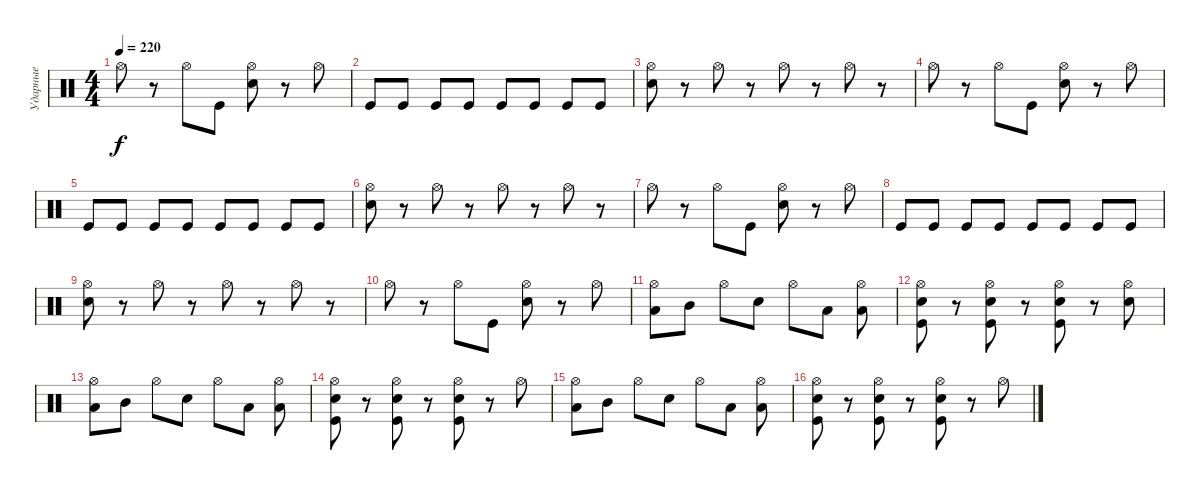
\track ("Ударные" "Ударные") {instrument percussion}
\staff {score}
\articulation defaults
\ts (4 4)
\tempo 220
\clef neutral
\ks c "Hi-Hat (open)".8{dy f}
r.8 "Hi-Hat (open)".8 "Kick (hit)".8 ("Hi-Hat (open)" "Electric Snare (hit)").8 r.8 "Hi-Hat (open)".8 |
"Kick (hit)".8 "Kick (hit)".8 "Kick (hit)".8 "Kick (hit)".8 "Kick (hit)".8 "Kick (hit)".8 "Kick (hit)".8 "Kick (hit)".8 |
("Hi-Hat (open)" "Electric Snare (hit)").8 r.8 "Hi-Hat (open)".8 r.8 "Hi-Hat (open)".8 r.8 "Hi-Hat (open)".8 r.8 |
"Hi-Hat (open)".8 r.8 "Hi-Hat (open)".8 "Kick (hit)".8 ("Hi-Hat (open)" "Electric Snare (hit)").8 r.8 "Hi-Hat (open)".8 |
"Kick (hit)".8 "Kick (hit)".8 "Kick (hit)".8 "Kick (hit)".8 "Kick (hit)".8 "Kick (hit)".8 "Kick (hit)".8 "Kick (hit)".8 |
("Hi-Hat (open)" "Electric Snare (hit)").8 r.8 "Hi-Hat (open)".8 r.8 "Hi-Hat (open)".8 r.8 "Hi-Hat (open)".8 r.8 |
"Hi-Hat (open)".8 r.8 "Hi-Hat (open)".8 "Kick (hit)".8 ("Hi-Hat (open)" "Electric Snare (hit)").8 r.8 "Hi-Hat (open)".8 |
"Kick (hit)".8 "Kick (hit)".8 "Kick (hit)".8 "Kick (hit)".8 "Kick (hit)".8 "Kick (hit)".8 "Kick (hit)".8 "Kick (hit)".8 |
("Hi-Hat (open)" "Electric Snare (hit)").8 r.8 "Hi-Hat (open)".8 r.8 "Hi-Hat (open)".8 r.8 "Hi-Hat (open)".8 r.8 |
"Hi-Hat (open)".8 r.8 "Hi-Hat (open)".8 "Kick (hit)".8 ("Hi-Hat (open)" "Electric Snare (hit)").8 r.8 "Hi-Hat (open)".8 |
("Hi-Hat (open)" "Low Tom (hit)").8 "Mid Tom (hit)".8 "Hi-Hat (open)".8 "Electric Snare (hit)".8 "Hi-Hat (open)".8 "Low Floor Tom (hit)".8 ("Hi-Hat (open)" "Low Tom (hit)").8 |
("Hi-Hat (open)" "Electric Snare (hit)" "Kick (hit)").8 r.8 ("Hi-Hat (open)" "Electric Snare (hit)" "Kick (hit)").8 r.8 ("Hi-Hat (open)" "Electric Snare (hit)" "Kick (hit)").8 r.8 ("Hi-Hat (open)" "Electric Snare (hit)").8 |
("Hi-Hat (open)" "Low Tom (hit)").8 "Mid Tom (hit)".8 "Hi-Hat (open)".8 "Electric Snare (hit)".8 "Hi-Hat (open)".8 "Low Floor Tom (hit)".8 ("Hi-Hat (open)" "Low Tom (hit)").8 |
("Hi-Hat (open)" "Electric Snare (hit)" "Kick (hit)").8 r.8 ("Hi-Hat (open)" "Electric Snare (hit)" "Kick (hit)").8 r.8 ("Hi-Hat (open)" "Electric Snare (hit)" "Kick (hit)").8 r.8 "Hi-Hat (open)".8 |
("Hi-Hat (open)" "Low Tom (hit)").8 "Mid Tom (hit)".8 "Hi-Hat (open)".8 "Electric Snare (hit)".8 "Hi-Hat (open)".8 "Low Floor Tom (hit)".8 ("Hi-Hat (open)" "Low Tom (hit)").8 |
("Hi-Hat (open)" "Electric Snare (hit)" "Kick (hit)").8 r.8 ("Hi-Hat (open)" "Electric Snare (hit)" "Kick (hit)").8 r.8 ("Hi-Hat (open)" "Electric Snare (hit)" "Kick (hit)").8 r.8 "Hi-Hat (open)".8
